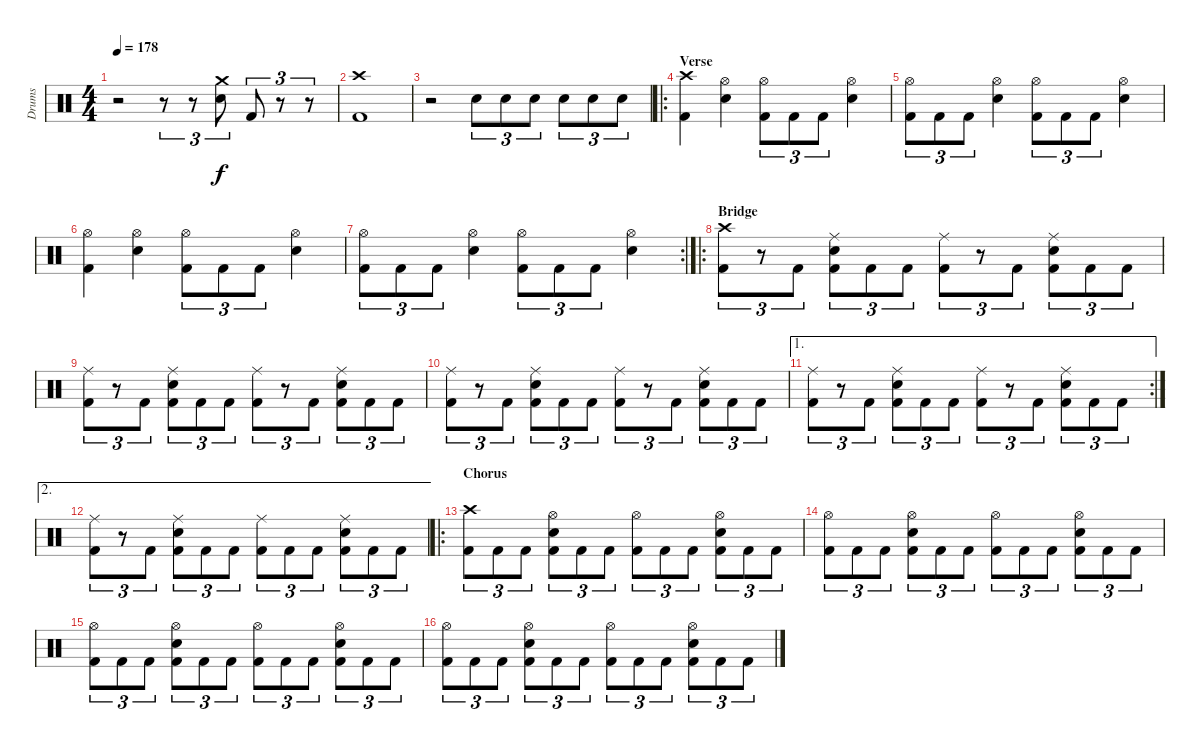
\track ("Drums" "Drums") {instrument percussion}
\staff {score}
\articulation defaults
\ts (4 4)
\tempo 178
\clef neutral
\ks c
r.2{dy f} r.8{tu (3 2)} r.8{tu (3 2)} ("Crash medium (hit)" "Electric Snare (hit)").8{tu (3 2)} "Kick (hit) 2".8{tu (3 2)} r.8{tu (3 2)} r.8{tu (3 2)} |
("Crash high (hit)" "Kick (hit) 2").1 |
r.2 "Electric Snare (hit)".8{tu (3 2)} "Electric Snare (hit)".8{tu (3 2)} "Electric Snare (hit)".8{tu (3 2)} "Electric Snare (hit)".8{tu (3 2)} "Electric Snare (hit)".8{tu (3 2)} "Electric Snare (hit)".8{tu (3 2)} |
\ro
\section ("" "Verse")
("Crash high (hit)" "Kick (hit) 2").4 ("Hi-Hat (open)" "Electric Snare (hit)").4 ("Hi-Hat (open)" "Kick (hit) 2").8{tu (3 2)} "Kick (hit) 2".8{tu (3 2)} "Kick (hit) 2".8{tu (3 2)} ("Hi-Hat (open)" "Electric Snare (hit)").4 |
("Hi-Hat (open)" "Kick (hit) 2").8{tu (3 2)} "Kick (hit) 2".8{tu (3 2)} "Kick (hit) 2".8{tu (3 2)} ("Hi-Hat (open)" "Electric Snare (hit)").4 ("Hi-Hat (open)" "Kick (hit) 2").8{tu (3 2)} "Kick (hit) 2".8{tu (3 2)} "Kick (hit) 2".8{tu (3 2)} ("Hi-Hat (open)" "Electric Snare (hit)").4 |
("Hi-Hat (open)" "Kick (hit) 2").4 ("Hi-Hat (open)" "Electric Snare (hit)").4 ("Hi-Hat (open)" "Kick (hit) 2").8{tu (3 2)} "Kick (hit) 2".8{tu (3 2)} "Kick (hit) 2".8{tu (3 2)} ("Hi-Hat (open)" "Electric Snare (hit)").4 |
\rc 2
("Hi-Hat (open)" "Kick (hit) 2").8{tu (3 2)} "Kick (hit) 2".8{tu (3 2)} "Kick (hit) 2".8{tu (3 2)} ("Hi-Hat (open)" "Electric Snare (hit)").4 ("Hi-Hat (open)" "Kick (hit) 2").8{tu (3 2)} "Kick (hit) 2".8{tu (3 2)} "Kick (hit) 2".8{tu (3 2)} ("Hi-Hat (open)" "Electric Snare (hit)").4 |
\ro
\section ("" "Bridge")
("Crash high (hit)" "Kick (hit) 2").8{tu (3 2)} r.8{tu (3 2)} "Kick (hit) 2".8{tu (3 2)} ("Ride (middle)" "Electric Snare (hit)" "Kick (hit) 2").8{tu (3 2)} "Kick (hit) 2".8{tu (3 2)} "Kick (hit) 2".8{tu (3 2)} ("Ride (middle)" "Kick (hit) 2").8{tu (3 2)} r.8{tu (3 2)} "Kick (hit) 2".8{tu (3 2)} ("Ride (middle)" "Electric Snare (hit)" "Kick (hit) 2").8{tu (3 2)} "Kick (hit) 2".8{tu (3 2)} "Kick (hit) 2".8{tu (3 2)} |
("Ride (middle)" "Kick (hit) 2").8{tu (3 2)} r.8{tu (3 2)} "Kick (hit) 2".8{tu (3 2)} ("Ride (middle)" "Electric Snare (hit)" "Kick (hit) 2").8{tu (3 2)} "Kick (hit) 2".8{tu (3 2)} "Kick (hit) 2".8{tu (3 2)} ("Ride (middle)" "Kick (hit) 2").8{tu (3 2)} r.8{tu (3 2)} "Kick (hit) 2".8{tu (3 2)} ("Ride (middle)" "Electric Snare (hit)" "Kick (hit) 2").8{tu (3 2)} "Kick (hit) 2".8{tu (3 2)} "Kick (hit) 2".8{tu (3 2)} |
("Ride (middle)" "Kick (hit) 2").8{tu (3 2)} r.8{tu (3 2)} "Kick (hit) 2".8{tu (3 2)} ("Ride (middle)" "Electric Snare (hit)" "Kick (hit) 2").8{tu (3 2)} "Kick (hit) 2".8{tu (3 2)} "Kick (hit) 2".8{tu (3 2)} ("Ride (middle)" "Kick (hit) 2").8{tu (3 2)} r.8{tu (3 2)} "Kick (hit) 2".8{tu (3 2)} ("Ride (middle)" "Electric Snare (hit)" "Kick (hit) 2").8{tu (3 2)} "Kick (hit) 2".8{tu (3 2)} "Kick (hit) 2".8{tu (3 2)} |
\ae 1
\rc 2
("Ride (middle)" "Kick (hit) 2").8{tu (3 2)} r.8{tu (3 2)} "Kick (hit) 2".8{tu (3 2)} ("Ride (middle)" "Electric Snare (hit)" "Kick (hit) 2").8{tu (3 2)} "Kick (hit) 2".8{tu (3 2)} "Kick (hit) 2".8{tu (3 2)} ("Ride (middle)" "Kick (hit) 2").8{tu (3 2)} r.8{tu (3 2)} "Kick (hit) 2".8{tu (3 2)} ("Ride (middle)" "Electric Snare (hit)" "Kick (hit) 2").8{tu (3 2)} "Kick (hit) 2".8{tu (3 2)} "Kick (hit) 2".8{tu (3 2)} |
\ae 2
("Ride (middle)" "Kick (hit) 2").8{tu (3 2)} r.8{tu (3 2)} "Kick (hit) 2".8{tu (3 2)} ("Ride (middle)" "Electric Snare (hit)" "Kick (hit) 2").8{tu (3 2)} "Kick (hit) 2".8{tu (3 2)} "Kick (hit) 2".8{tu (3 2)} ("Ride (middle)" "Kick (hit) 2").8{tu (3 2)} "Kick (hit) 2".8{tu (3 2)} "Kick (hit) 2".8{tu (3 2)} ("Ride (middle)" "Electric Snare (hit)" "Kick (hit) 2").8{tu (3 2)} "Kick (hit) 2".8{tu (3 2)} "Kick (hit) 2".8{tu (3 2)} |
\ro
\section ("" "Chorus")
("Crash high (hit)" "Kick (hit) 2").8{tu (3 2)} "Kick (hit) 2".8{tu (3 2)} "Kick (hit) 2".8{tu (3 2)} ("Hi-Hat (open)" "Electric Snare (hit)" "Kick (hit) 2").8{tu (3 2)} "Kick (hit) 2".8{tu (3 2)} "Kick (hit) 2".8{tu (3 2)} ("Hi-Hat (open)" "Kick (hit) 2").8{tu (3 2)} "Kick (hit) 2".8{tu (3 2)} "Kick (hit) 2".8{tu (3 2)} ("Hi-Hat (open)" "Electric Snare (hit)" "Kick (hit) 2").8{tu (3 2)} "Kick (hit) 2".8{tu (3 2)} "Kick (hit) 2".8{tu (3 2)} |
("Hi-Hat (open)" "Kick (hit) 2").8{tu (3 2)} "Kick (hit) 2".8{tu (3 2)} "Kick (hit) 2".8{tu (3 2)} ("Hi-Hat (open)" "Electric Snare (hit)" "Kick (hit) 2").8{tu (3 2)} "Kick (hit) 2".8{tu (3 2)} "Kick (hit) 2".8{tu (3 2)} ("Hi-Hat (open)" "Kick (hit) 2").8{tu (3 2)} "Kick (hit) 2".8{tu (3 2)} "Kick (hit) 2".8{tu (3 2)} ("Hi-Hat (open)" "Electric Snare (hit)" "Kick (hit) 2").8{tu (3 2)} "Kick (hit) 2".8{tu (3 2)} "Kick (hit) 2".8{tu (3 2)} |
("Hi-Hat (open)" "Kick (hit) 2").8{tu (3 2)} "Kick (hit) 2".8{tu (3 2)} "Kick (hit) 2".8{tu (3 2)} ("Hi-Hat (open)" "Electric Snare (hit)" "Kick (hit) 2").8{tu (3 2)} "Kick (hit) 2".8{tu (3 2)} "Kick (hit) 2".8{tu (3 2)} ("Hi-Hat (open)" "Kick (hit) 2").8{tu (3 2)} "Kick (hit) 2".8{tu (3 2)} "Kick (hit) 2".8{tu (3 2)} ("Hi-Hat (open)" "Electric Snare (hit)" "Kick (hit) 2").8{tu (3 2)} "Kick (hit) 2".8{tu (3 2)} "Kick (hit) 2".8{tu (3 2)} |
("Hi-Hat (open)" "Kick (hit) 2").8{tu (3 2)} "Kick (hit) 2".8{tu (3 2)} "Kick (hit) 2".8{tu (3 2)} ("Hi-Hat (open)" "Electric Snare (hit)" "Kick (hit) 2").8{tu (3 2)} "Kick (hit) 2".8{tu (3 2)} "Kick (hit) 2".8{tu (3 2)} ("Hi-Hat (open)" "Kick (hit) 2").8{tu (3 2)} "Kick (hit) 2".8{tu (3 2)} "Kick (hit) 2".8{tu (3 2)} ("Hi-Hat (open)" "Electric Snare (hit)" "Kick (hit) 2").8{tu (3 2)} "Kick (hit) 2".8{tu (3 2)} "Kick (hit) 2".8{tu (3 2)}
